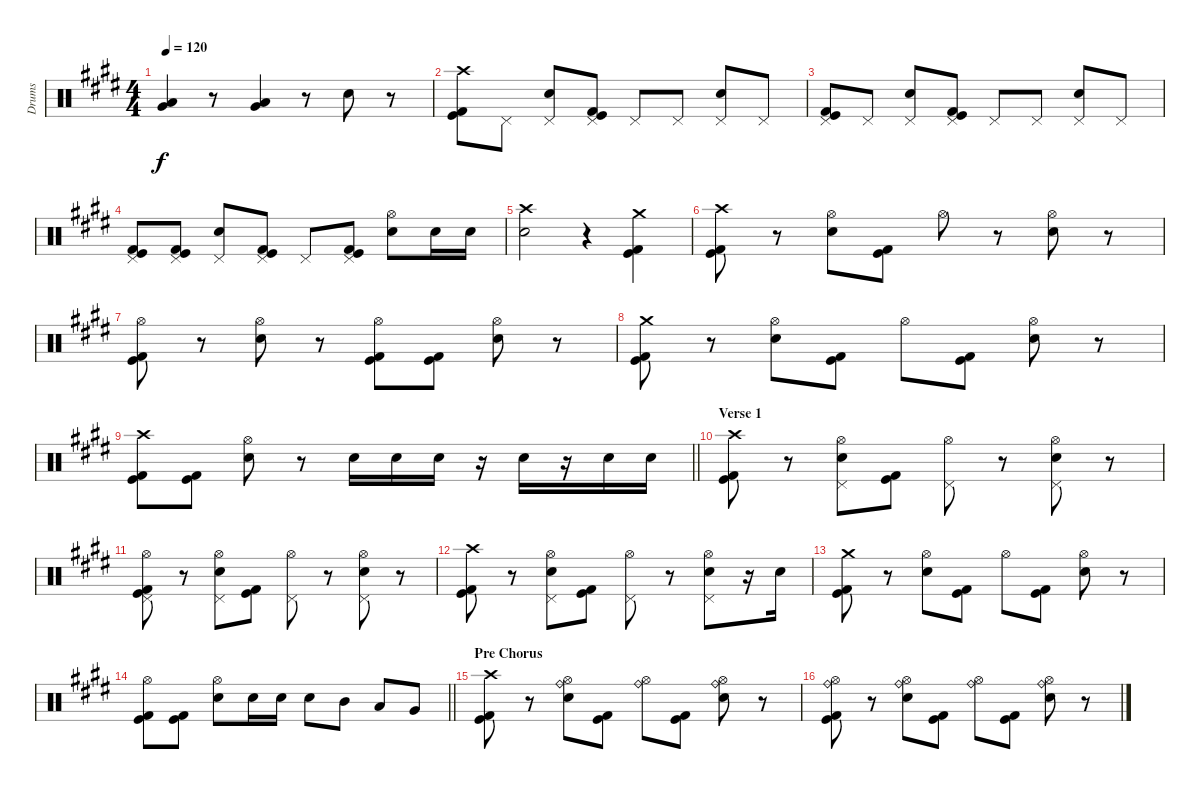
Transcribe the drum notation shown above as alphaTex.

\track ("Drums" "Drums") {instrument percussion}
\staff {score}
\articulation defaults
\ts (4 4)
\tempo 120
\clef neutral
\ks e
("Low Tom (hit)" "Very Low Tom (hit)").4{dy f} r.8 ("Low Tom (hit)" "Very Low Tom (hit)").4 r.8 "Electric Snare (hit)".8 r.8 |
("Crash high (hit)" "Kick (hit)" "Kick (hit) 2").8 "Pedal Hi-Hat (hit)".8 ("Pedal Hi-Hat (hit)" "Electric Snare (hit)").8 ("Pedal Hi-Hat (hit)" "Kick (hit)" "Kick (hit) 2").8 "Pedal Hi-Hat (hit)".8 "Pedal Hi-Hat (hit)".8 ("Pedal Hi-Hat (hit)" "Electric Snare (hit)").8 "Pedal Hi-Hat (hit)".8 |
("Pedal Hi-Hat (hit)" "Kick (hit)" "Kick (hit) 2").8 "Pedal Hi-Hat (hit)".8 ("Pedal Hi-Hat (hit)" "Electric Snare (hit)").8 ("Pedal Hi-Hat (hit)" "Kick (hit)" "Kick (hit) 2").8 "Pedal Hi-Hat (hit)".8 "Pedal Hi-Hat (hit)".8 ("Pedal Hi-Hat (hit)" "Electric Snare (hit)").8 "Pedal Hi-Hat (hit)".8 |
("Pedal Hi-Hat (hit)" "Kick (hit)" "Kick (hit) 2").8 ("Pedal Hi-Hat (hit)" "Kick (hit)" "Kick (hit) 2").8 ("Pedal Hi-Hat (hit)" "Electric Snare (hit)").8 ("Pedal Hi-Hat (hit)" "Kick (hit)" "Kick (hit) 2").8 "Pedal Hi-Hat (hit)".8 ("Pedal Hi-Hat (hit)" "Kick (hit)" "Kick (hit) 2").8 ("Hi-Hat (open)" "Electric Snare (hit)").8 "Electric Snare (hit)".16 "Electric Snare (hit)".16 |
("Crash high (hit)" "Electric Snare (hit)").2 r.4 ("Crash medium (hit)" "Kick (hit)" "Kick (hit) 2").4 |
("Crash high (hit)" "Kick (hit)" "Kick (hit) 2").8 r.8 ("Hi-Hat (open)" "Electric Snare (hit)").8 ("Kick (hit)" "Kick (hit) 2").8 "Hi-Hat (open)".8 r.8 ("Hi-Hat (open)" "Electric Snare (hit)").8 r.8 |
("Hi-Hat (open)" "Kick (hit)" "Kick (hit) 2").8 r.8 ("Hi-Hat (open)" "Electric Snare (hit)").8 r.8 ("Hi-Hat (open)" "Kick (hit)" "Kick (hit) 2").8 ("Kick (hit)" "Kick (hit) 2").8 ("Hi-Hat (open)" "Electric Snare (hit)").8 r.8 |
("Crash medium (hit)" "Kick (hit)" "Kick (hit) 2").8 r.8 ("Hi-Hat (open)" "Electric Snare (hit)").8 ("Kick (hit)" "Kick (hit) 2").8 "Hi-Hat (open)".8 ("Kick (hit) 2" "Kick (hit)").8 ("Hi-Hat (open)" "Electric Snare (hit)").8 r.8 |
\barLineRight lightlight
("Crash high (hit)" "Kick (hit)" "Kick (hit) 2").8 ("Kick (hit) 2" "Kick (hit)").8 ("Hi-Hat (open)" "Electric Snare (hit)").8 r.8 "Electric Snare (hit)".16 "Electric Snare (hit)".16 "Electric Snare (hit)".16 r.16 "Electric Snare (hit)".16 r.16 "Electric Snare (hit)".16 "Electric Snare (hit)".16 |
\section ("" "Verse 1")
("Crash high (hit)" "Kick (hit)" "Kick (hit) 2").8 r.8 ("Hi-Hat (open)" "Pedal Hi-Hat (hit)" "Electric Snare (hit)").8 ("Kick (hit)" "Kick (hit) 2").8 ("Hi-Hat (open)" "Pedal Hi-Hat (hit)").8 r.8 ("Hi-Hat (open)" "Pedal Hi-Hat (hit)" "Electric Snare (hit)").8 r.8 |
("Hi-Hat (open)" "Pedal Hi-Hat (hit)" "Kick (hit)" "Kick (hit) 2").8 r.8 ("Hi-Hat (open)" "Pedal Hi-Hat (hit)" "Electric Snare (hit)").8 ("Kick (hit)" "Kick (hit) 2").8 ("Hi-Hat (open)" "Pedal Hi-Hat (hit)").8 r.8 ("Hi-Hat (open)" "Pedal Hi-Hat (hit)" "Electric Snare (hit)").8 r.8 |
("Crash high (hit)" "Kick (hit)" "Kick (hit) 2").8 r.8 ("Hi-Hat (open)" "Pedal Hi-Hat (hit)" "Electric Snare (hit)").8 ("Kick (hit)" "Kick (hit) 2").8 ("Hi-Hat (open)" "Pedal Hi-Hat (hit)").8 r.8 ("Hi-Hat (open)" "Pedal Hi-Hat (hit)" "Electric Snare (hit)").8 r.16 "Electric Snare (hit)".16 |
("Crash medium (hit)" "Kick (hit)" "Kick (hit) 2").8 r.8 ("Hi-Hat (open)" "Electric Snare (hit)").8 ("Kick (hit)" "Kick (hit) 2").8 "Hi-Hat (open)".8 ("Kick (hit) 2" "Kick (hit)").8 ("Hi-Hat (open)" "Electric Snare (hit)").8 r.8 |
\barLineRight lightlight
("Hi-Hat (open)" "Kick (hit)" "Kick (hit) 2").8 ("Kick (hit) 2" "Kick (hit)").8 ("Hi-Hat (open)" "Electric Snare (hit)").8 "Electric Snare (hit)".16 "Electric Snare (hit)".16 "Electric Snare (hit)".8 "Mid Tom (hit)".8 "Low Tom (hit)".8 "Very Low Tom (hit)".8 |
\section ("" "Pre Chorus")
("Crash high (hit)" "Kick (hit)" "Kick (hit) 2").8 r.8 ("Ride (bell)" "Hi-Hat (open)" "Electric Snare (hit)").8 ("Kick (hit)" "Kick (hit) 2").8 ("Ride (bell)" "Hi-Hat (open)").8 ("Kick (hit) 2" "Kick (hit)").8 ("Ride (bell)" "Hi-Hat (open)" "Electric Snare (hit)").8 r.8 |
("Ride (bell)" "Hi-Hat (open)" "Kick (hit)" "Kick (hit) 2").8 r.8 ("Ride (bell)" "Hi-Hat (open)" "Electric Snare (hit)").8 ("Kick (hit)" "Kick (hit) 2").8 ("Ride (bell)" "Hi-Hat (open)").8 ("Kick (hit) 2" "Kick (hit)").8 ("Ride (bell)" "Hi-Hat (open)" "Electric Snare (hit)").8 r.8
